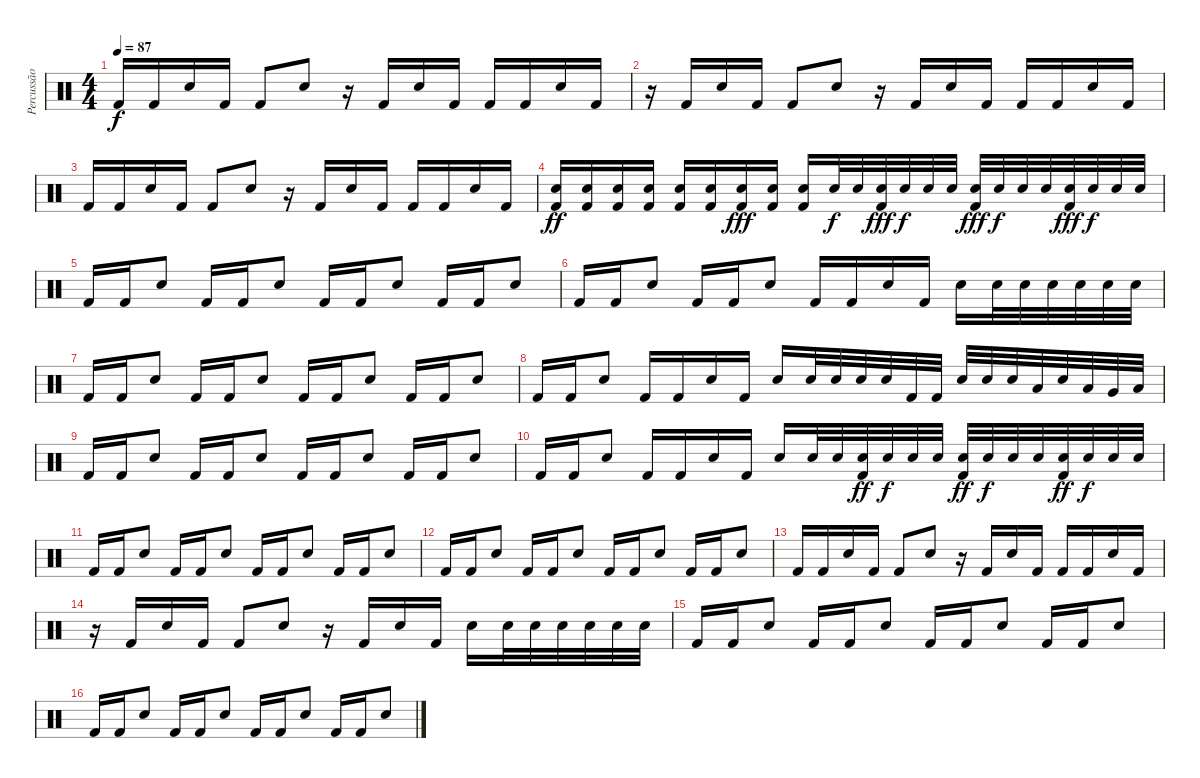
\track ("Percussão" "Percussão") {instrument percussion}
\staff {score}
\articulation defaults
\ts (4 4)
\tempo 87
\clef neutral
\ks c "Kick (hit) 2".16{dy f} "Kick (hit) 2".16 "Electric Snare (hit)".16 "Kick (hit) 2".16 "Kick (hit) 2".8 "Electric Snare (hit)".8
r.16 "Kick (hit) 2".16 "Electric Snare (hit)".16 "Kick (hit) 2".16 "Kick (hit) 2".16 "Kick (hit) 2".16 "Electric Snare (hit)".16 "Kick (hit) 2".16 |
r.16 "Kick (hit) 2".16 "Electric Snare (hit)".16 "Kick (hit) 2".16 "Kick (hit) 2".8 "Electric Snare (hit)".8 r.16 "Kick (hit) 2".16 "Electric Snare (hit)".16 "Kick (hit) 2".16 "Kick (hit) 2".16 "Kick (hit) 2".16 "Electric Snare (hit)".16 "Kick (hit) 2".16 |
"Kick (hit) 2".16 "Kick (hit) 2".16 "Electric Snare (hit)".16 "Kick (hit) 2".16 "Kick (hit) 2".8 "Electric Snare (hit)".8 r.16 "Kick (hit) 2".16 "Electric Snare (hit)".16 "Kick (hit) 2".16 "Kick (hit) 2".16 "Kick (hit) 2".16 "Electric Snare (hit)".16 "Kick (hit) 2".16 |
("Electric Snare (hit)" "Kick (hit) 2").16{dy ff} ("Electric Snare (hit)" "Kick (hit) 2").16 ("Electric Snare (hit)" "Kick (hit) 2").16 ("Electric Snare (hit)" "Kick (hit) 2").16 ("Electric Snare (hit)" "Kick (hit) 2").16 ("Electric Snare (hit)" "Kick (hit) 2").16 ("Electric Snare (hit)" "Kick (hit) 2").16{dy fff} ("Electric Snare (hit)" "Kick (hit) 2").16 ("Electric Snare (hit)" "Kick (hit) 2").16 "Electric Snare (hit)".32{dy f} "Electric Snare (hit)".32 ("Electric Snare (hit)" "Kick (hit) 2").32{dy fff} "Electric Snare (hit)".32{dy f} "Electric Snare (hit)".32 "Electric Snare (hit)".32 ("Electric Snare (hit)" "Kick (hit) 2").32{dy fff} "Electric Snare (hit)".32{dy f} "Electric Snare (hit)".32 "Electric Snare (hit)".32 ("Electric Snare (hit)" "Kick (hit) 2").32{dy fff} "Electric Snare (hit)".32{dy f} "Electric Snare (hit)".32 "Electric Snare (hit)".32 |
"Kick (hit) 2".16 "Kick (hit) 2".16 "Electric Snare (hit)".8 "Kick (hit) 2".16 "Kick (hit) 2".16 "Electric Snare (hit)".8 "Kick (hit) 2".16 "Kick (hit) 2".16 "Electric Snare (hit)".8 "Kick (hit) 2".16 "Kick (hit) 2".16 "Electric Snare (hit)".8 |
"Kick (hit) 2".16 "Kick (hit) 2".16 "Electric Snare (hit)".8 "Kick (hit) 2".16 "Kick (hit) 2".16 "Electric Snare (hit)".8 "Kick (hit) 2".16 "Kick (hit) 2".16 "Electric Snare (hit)".16 "Kick (hit) 2".16 "Electric Snare (hit)".16 "Electric Snare (hit)".32 "Electric Snare (hit)".32 "Electric Snare (hit)".32 "Electric Snare (hit)".32 "Electric Snare (hit)".32 "Electric Snare (hit)".32 |
"Kick (hit) 2".16 "Kick (hit) 2".16 "Electric Snare (hit)".8 "Kick (hit) 2".16 "Kick (hit) 2".16 "Electric Snare (hit)".8 "Kick (hit) 2".16 "Kick (hit) 2".16 "Electric Snare (hit)".8 "Kick (hit) 2".16 "Kick (hit) 2".16 "Electric Snare (hit)".8 |
"Kick (hit) 2".16 "Kick (hit) 2".16 "Electric Snare (hit)".8 "Kick (hit) 2".16 "Kick (hit) 2".16 "Electric Snare (hit)".16 "Kick (hit) 2".16 "Electric Snare (hit)".16 "Electric Snare (hit)".32 "Electric Snare (hit)".32 "Electric Snare (hit)".32 "Electric Snare (hit)".32 "Kick (hit) 2".32 "Kick (hit) 2".32 "Electric Snare (hit)".32 "Electric Snare (hit)".32 "Electric Snare (hit)".32 "Low Tom (hit)".32 "Electric Snare (hit)".32 "Low Tom (hit)".32 "Very Low Tom (hit)".32 "Low Floor Tom (hit)".32 |
"Kick (hit) 2".16 "Kick (hit) 2".16 "Electric Snare (hit)".8 "Kick (hit) 2".16 "Kick (hit) 2".16 "Electric Snare (hit)".8 "Kick (hit) 2".16 "Kick (hit) 2".16 "Electric Snare (hit)".8 "Kick (hit) 2".16 "Kick (hit) 2".16 "Electric Snare (hit)".8 |
"Kick (hit) 2".16 "Kick (hit) 2".16 "Electric Snare (hit)".8 "Kick (hit) 2".16 "Kick (hit) 2".16 "Electric Snare (hit)".16 "Kick (hit) 2".16 "Electric Snare (hit)".16 "Electric Snare (hit)".32 "Electric Snare (hit)".32 ("Electric Snare (hit)" "Kick (hit) 2").32{dy ff} "Electric Snare (hit)".32{dy f} "Electric Snare (hit)".32 "Electric Snare (hit)".32 ("Electric Snare (hit)" "Kick (hit) 2").32{dy ff} "Electric Snare (hit)".32{dy f} "Electric Snare (hit)".32 "Electric Snare (hit)".32 ("Electric Snare (hit)" "Kick (hit) 2").32{dy ff} "Electric Snare (hit)".32{dy f} "Electric Snare (hit)".32 "Electric Snare (hit)".32 |
"Kick (hit) 2".16 "Kick (hit) 2".16 "Electric Snare (hit)".8 "Kick (hit) 2".16 "Kick (hit) 2".16 "Electric Snare (hit)".8 "Kick (hit) 2".16 "Kick (hit) 2".16 "Electric Snare (hit)".8 "Kick (hit) 2".16 "Kick (hit) 2".16 "Electric Snare (hit)".8 |
"Kick (hit) 2".16 "Kick (hit) 2".16 "Electric Snare (hit)".8 "Kick (hit) 2".16 "Kick (hit) 2".16 "Electric Snare (hit)".8 "Kick (hit) 2".16 "Kick (hit) 2".16 "Electric Snare (hit)".8 "Kick (hit) 2".16 "Kick (hit) 2".16 "Electric Snare (hit)".8 |
"Kick (hit) 2".16 "Kick (hit) 2".16 "Electric Snare (hit)".16 "Kick (hit) 2".16 "Kick (hit) 2".8 "Electric Snare (hit)".8 r.16 "Kick (hit) 2".16 "Electric Snare (hit)".16 "Kick (hit) 2".16 "Kick (hit) 2".16 "Kick (hit) 2".16 "Electric Snare (hit)".16 "Kick (hit) 2".16 |
r.16 "Kick (hit) 2".16 "Electric Snare (hit)".16 "Kick (hit) 2".16 "Kick (hit) 2".8 "Electric Snare (hit)".8 r.16 "Kick (hit) 2".16 "Electric Snare (hit)".16 "Kick (hit) 2".16 "Electric Snare (hit)".16 "Electric Snare (hit)".32 "Electric Snare (hit)".32 "Electric Snare (hit)".32 "Electric Snare (hit)".32 "Electric Snare (hit)".32 "Electric Snare (hit)".32 |
"Kick (hit) 2".16 "Kick (hit) 2".16 "Electric Snare (hit)".8 "Kick (hit) 2".16 "Kick (hit) 2".16 "Electric Snare (hit)".8 "Kick (hit) 2".16 "Kick (hit) 2".16 "Electric Snare (hit)".8 "Kick (hit) 2".16 "Kick (hit) 2".16 "Electric Snare (hit)".8 |
"Kick (hit) 2".16 "Kick (hit) 2".16 "Electric Snare (hit)".8 "Kick (hit) 2".16 "Kick (hit) 2".16 "Electric Snare (hit)".8 "Kick (hit) 2".16 "Kick (hit) 2".16 "Electric Snare (hit)".8 "Kick (hit) 2".16 "Kick (hit) 2".16 "Electric Snare (hit)".8
